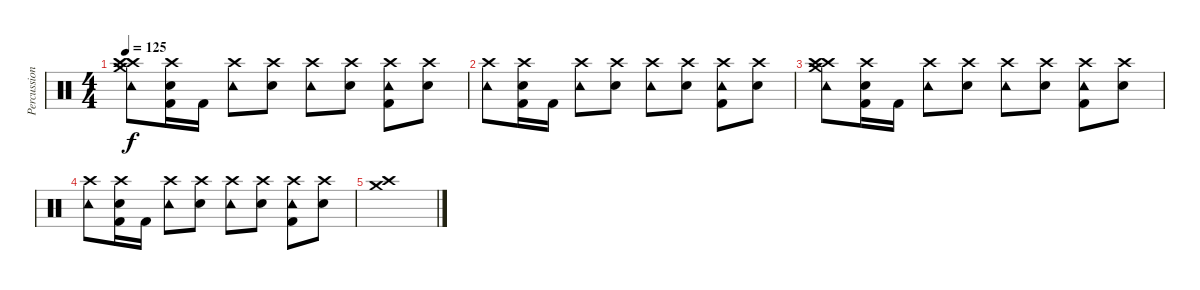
\track ("Percussioni" "Percussion") {instrument percussion}
\staff {score}
\articulation defaults
\ts (4 4)
\tempo 125
\clef neutral
\ks c
("Crash high (hit)" "Crash high (hit)" "Crash medium (hit)" "Tambourine (hit)").8{dy f} ("Crash high (hit)" "Kick (hit) 2" "Snare (hit) 2").16 "Kick (hit) 2".16 ("Crash high (hit)" "Tambourine (hit)").8 ("Crash high (hit)" "Snare (hit) 2").8 ("Crash high (hit)" "Tambourine (hit)").8 ("Crash high (hit)" "Snare (hit) 2").8 ("Crash high (hit)" "Kick (hit) 2" "Tambourine (hit)").8 ("Crash high (hit)" "Snare (hit) 2").8 |
("Crash high (hit)" "Tambourine (hit)").8 ("Crash high (hit)" "Kick (hit) 2" "Snare (hit) 2").16 "Kick (hit) 2".16 ("Crash high (hit)" "Tambourine (hit)").8 ("Crash high (hit)" "Snare (hit) 2").8 ("Crash high (hit)" "Tambourine (hit)").8 ("Crash high (hit)" "Snare (hit) 2").8 ("Crash high (hit)" "Kick (hit) 2" "Tambourine (hit)").8 ("Crash high (hit)" "Snare (hit) 2").8 |
("Crash high (hit)" "Crash high (hit)" "Crash medium (hit)" "Tambourine (hit)").8 ("Crash high (hit)" "Kick (hit) 2" "Snare (hit) 2").16 "Kick (hit) 2".16 ("Crash high (hit)" "Tambourine (hit)").8 ("Crash high (hit)" "Snare (hit) 2").8 ("Crash high (hit)" "Tambourine (hit)").8 ("Crash high (hit)" "Snare (hit) 2").8 ("Crash high (hit)" "Kick (hit) 2" "Tambourine (hit)").8 ("Crash high (hit)" "Snare (hit) 2").8 |
("Crash high (hit)" "Tambourine (hit)").8 ("Crash high (hit)" "Kick (hit) 2" "Snare (hit) 2").16 "Kick (hit) 2".16 ("Crash high (hit)" "Tambourine (hit)").8 ("Crash high (hit)" "Snare (hit) 2").8 ("Crash high (hit)" "Tambourine (hit)").8 ("Crash high (hit)" "Snare (hit) 2").8 ("Crash high (hit)" "Kick (hit) 2" "Tambourine (hit)").8 ("Crash high (hit)" "Snare (hit) 2").8 |
("Crash medium (hit)" "Crash high (hit)").1
